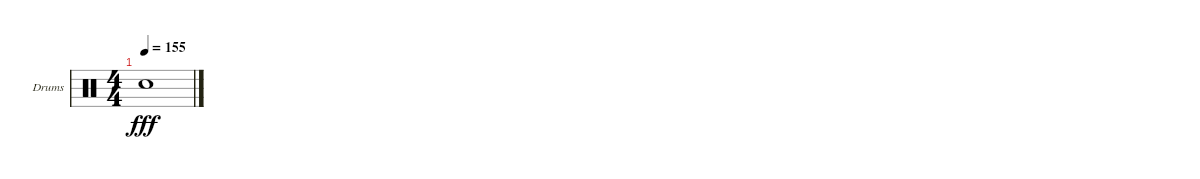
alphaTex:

\bracketExtendMode groupsimilarinstruments
\firstSystemTrackNameOrientation horizontal
\otherSystemsTrackNameOrientation horizontal
\track ("Е. Кулаков" "Drums") {instrument percussion}
\staff {score}
\articulation defaults
\ts (4 4)
\tempo 155
\clef neutral
\ks c "Snare (hit) 2".1{dy fff}
